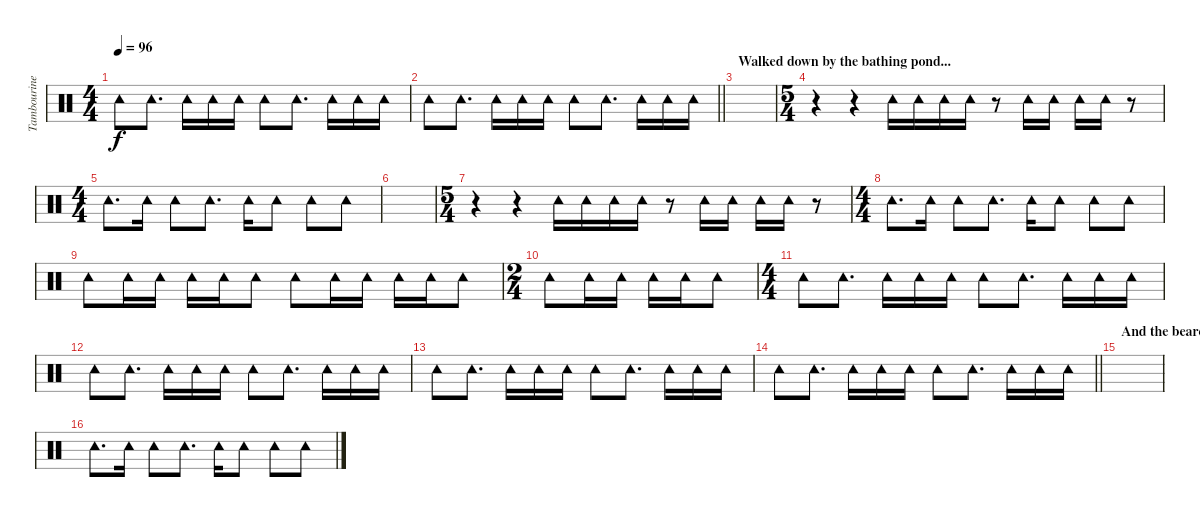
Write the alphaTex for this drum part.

\track ("Tambourine" "Tambourine") {instrument percussion}
\staff {score}
\articulation defaults
\ts (4 4)
\tempo 96
\clef neutral
\ks c "Tambourine (hit)".8{dy f} "Tambourine (hit)".8{d} "Tambourine (hit)".16 "Tambourine (hit)".16 "Tambourine (hit)".16 "Tambourine (hit)".8 "Tambourine (hit)".8{d} "Tambourine (hit)".16 "Tambourine (hit)".16 "Tambourine (hit)".16
|
\barLineRight lightlight "Tambourine (hit)".8 "Tambourine (hit)".8{d} "Tambourine (hit)".16 "Tambourine (hit)".16 "Tambourine (hit)".16 "Tambourine (hit)".8 "Tambourine (hit)".8{d} "Tambourine (hit)".16 "Tambourine (hit)".16 "Tambourine (hit)".16
|
\section ("" "Walked down by the bathing pond...")
|
\ts (5 4)
r.4 r.4 "Tambourine (hit)".16 "Tambourine (hit)".16 "Tambourine (hit)".16 "Tambourine (hit)".16 r.8 "Tambourine (hit)".16 "Tambourine (hit)".16 "Tambourine (hit)".16 "Tambourine (hit)".16 r.8 |
\ts (4 4)
"Tambourine (hit)".8{d} "Tambourine (hit)".16 "Tambourine (hit)".8 "Tambourine (hit)".8{d} "Tambourine (hit)".16 "Tambourine (hit)".8 "Tambourine (hit)".8 "Tambourine (hit)".8 |
|
\ts (5 4)
r.4 r.4 "Tambourine (hit)".16 "Tambourine (hit)".16 "Tambourine (hit)".16 "Tambourine (hit)".16 r.8 "Tambourine (hit)".16 "Tambourine (hit)".16 "Tambourine (hit)".16 "Tambourine (hit)".16 r.8 |
\ts (4 4)
"Tambourine (hit)".8{d} "Tambourine (hit)".16 "Tambourine (hit)".8 "Tambourine (hit)".8{d} "Tambourine (hit)".16 "Tambourine (hit)".8 "Tambourine (hit)".8 "Tambourine (hit)".8 |
"Tambourine (hit)".8 "Tambourine (hit)".16 "Tambourine (hit)".16 "Tambourine (hit)".16 "Tambourine (hit)".16 "Tambourine (hit)".8 "Tambourine (hit)".8 "Tambourine (hit)".16 "Tambourine (hit)".16 "Tambourine (hit)".16 "Tambourine (hit)".16 "Tambourine (hit)".8 |
\ts (2 4)
"Tambourine (hit)".8 "Tambourine (hit)".16 "Tambourine (hit)".16 "Tambourine (hit)".16 "Tambourine (hit)".16 "Tambourine (hit)".8 |
\ts (4 4)
"Tambourine (hit)".8 "Tambourine (hit)".8{d} "Tambourine (hit)".16 "Tambourine (hit)".16 "Tambourine (hit)".16 "Tambourine (hit)".8 "Tambourine (hit)".8{d} "Tambourine (hit)".16 "Tambourine (hit)".16 "Tambourine (hit)".16 |
"Tambourine (hit)".8 "Tambourine (hit)".8{d} "Tambourine (hit)".16 "Tambourine (hit)".16 "Tambourine (hit)".16 "Tambourine (hit)".8 "Tambourine (hit)".8{d} "Tambourine (hit)".16 "Tambourine (hit)".16 "Tambourine (hit)".16 |
"Tambourine (hit)".8 "Tambourine (hit)".8{d} "Tambourine (hit)".16 "Tambourine (hit)".16 "Tambourine (hit)".16 "Tambourine (hit)".8 "Tambourine (hit)".8{d} "Tambourine (hit)".16 "Tambourine (hit)".16 "Tambourine (hit)".16 |
\barLineRight lightlight "Tambourine (hit)".8 "Tambourine (hit)".8{d} "Tambourine (hit)".16 "Tambourine (hit)".16 "Tambourine (hit)".16 "Tambourine (hit)".8 "Tambourine (hit)".8{d} "Tambourine (hit)".16 "Tambourine (hit)".16 "Tambourine (hit)".16
|
\section ("" "And the bearded lady...")
|
"Tambourine (hit)".8{d} "Tambourine (hit)".16 "Tambourine (hit)".8 "Tambourine (hit)".8{d} "Tambourine (hit)".16 "Tambourine (hit)".8 "Tambourine (hit)".8 "Tambourine (hit)".8
